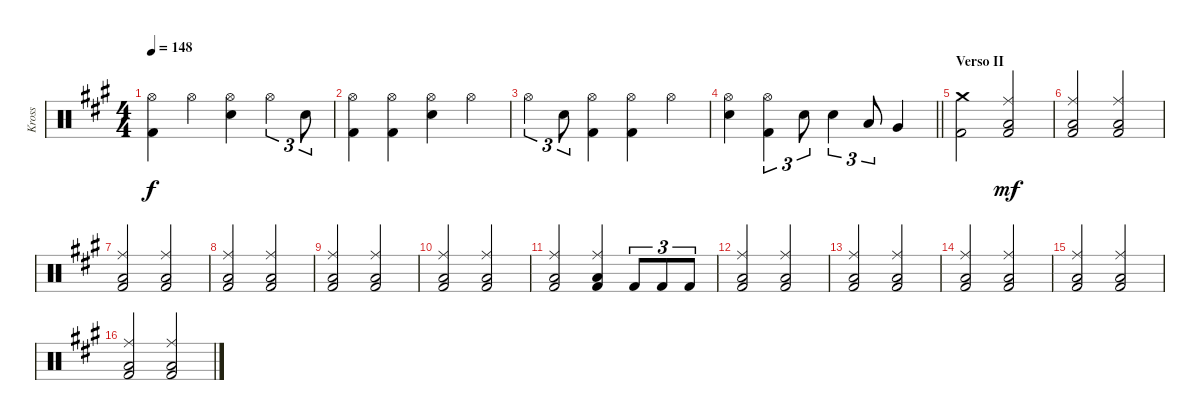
\track ("Kross" "Kross") {instrument percussion}
\staff {score}
\articulation defaults
\ts (4 4)
\tempo 148
\clef neutral
\ks a
("Hi-Hat (open)" "Kick (hit) 2").4{dy f} "Hi-Hat (open)".4 ("Hi-Hat (open)" "Electric Snare (hit)").4 "Hi-Hat (open)".4{tu (3 2)} "Electric Snare (hit)".8{tu (3 2)} |
("Hi-Hat (open)" "Kick (hit) 2").4 ("Hi-Hat (open)" "Kick (hit) 2").4 ("Hi-Hat (open)" "Electric Snare (hit)").4 "Hi-Hat (open)".4 |
"Hi-Hat (open)".4{tu (3 2)} "Electric Snare (hit)".8{tu (3 2)} ("Hi-Hat (open)" "Kick (hit) 2").4 ("Hi-Hat (open)" "Kick (hit) 2").4 "Hi-Hat (open)".4 |
\barLineRight lightlight
("Hi-Hat (open)" "Electric Snare (hit)").4 ("Hi-Hat (open)" "Kick (hit) 2").4{tu (3 2)} "Electric Snare (hit)".8{tu (3 2)} "Electric Snare (hit)".4{tu (3 2)} "Low Tom (hit)".8{tu (3 2)} "Very Low Tom (hit)".4 |
\section ("" "Verso II")
("Crash medium (hit)" "Kick (hit) 2").2 ("Ride (middle)" "Low Floor Tom (hit)" "Kick (hit) 2").2{dy mf} |
("Ride (middle)" "Low Floor Tom (hit)" "Kick (hit) 2").2 ("Ride (middle)" "Low Floor Tom (hit)" "Kick (hit) 2").2 |
("Ride (middle)" "Low Floor Tom (hit)" "Kick (hit) 2").2 ("Ride (middle)" "Low Floor Tom (hit)" "Kick (hit) 2").2 |
("Ride (middle)" "Low Floor Tom (hit)" "Kick (hit) 2").2 ("Ride (middle)" "Low Floor Tom (hit)" "Kick (hit) 2").2 |
("Ride (middle)" "Low Floor Tom (hit)" "Kick (hit) 2").2 ("Ride (middle)" "Low Floor Tom (hit)" "Kick (hit) 2").2 |
("Ride (middle)" "Low Floor Tom (hit)" "Kick (hit) 2").2 ("Ride (middle)" "Low Floor Tom (hit)" "Kick (hit) 2").2 |
("Ride (middle)" "Low Floor Tom (hit)" "Kick (hit) 2").2 ("Ride (middle)" "Low Floor Tom (hit)" "Kick (hit) 2").4 "Kick (hit) 2".8{tu (3 2)} "Kick (hit) 2".8{tu (3 2)} "Kick (hit) 2".8{tu (3 2)} |
("Ride (middle)" "Low Floor Tom (hit)" "Kick (hit) 2").2 ("Ride (middle)" "Low Floor Tom (hit)" "Kick (hit) 2").2 |
("Ride (middle)" "Low Floor Tom (hit)" "Kick (hit) 2").2 ("Ride (middle)" "Low Floor Tom (hit)" "Kick (hit) 2").2 |
("Ride (middle)" "Low Floor Tom (hit)" "Kick (hit) 2").2 ("Ride (middle)" "Low Floor Tom (hit)" "Kick (hit) 2").2 |
("Ride (middle)" "Low Floor Tom (hit)" "Kick (hit) 2").2 ("Ride (middle)" "Low Floor Tom (hit)" "Kick (hit) 2").2 |
("Ride (middle)" "Low Floor Tom (hit)" "Kick (hit) 2").2 ("Ride (middle)" "Low Floor Tom (hit)" "Kick (hit) 2").2
